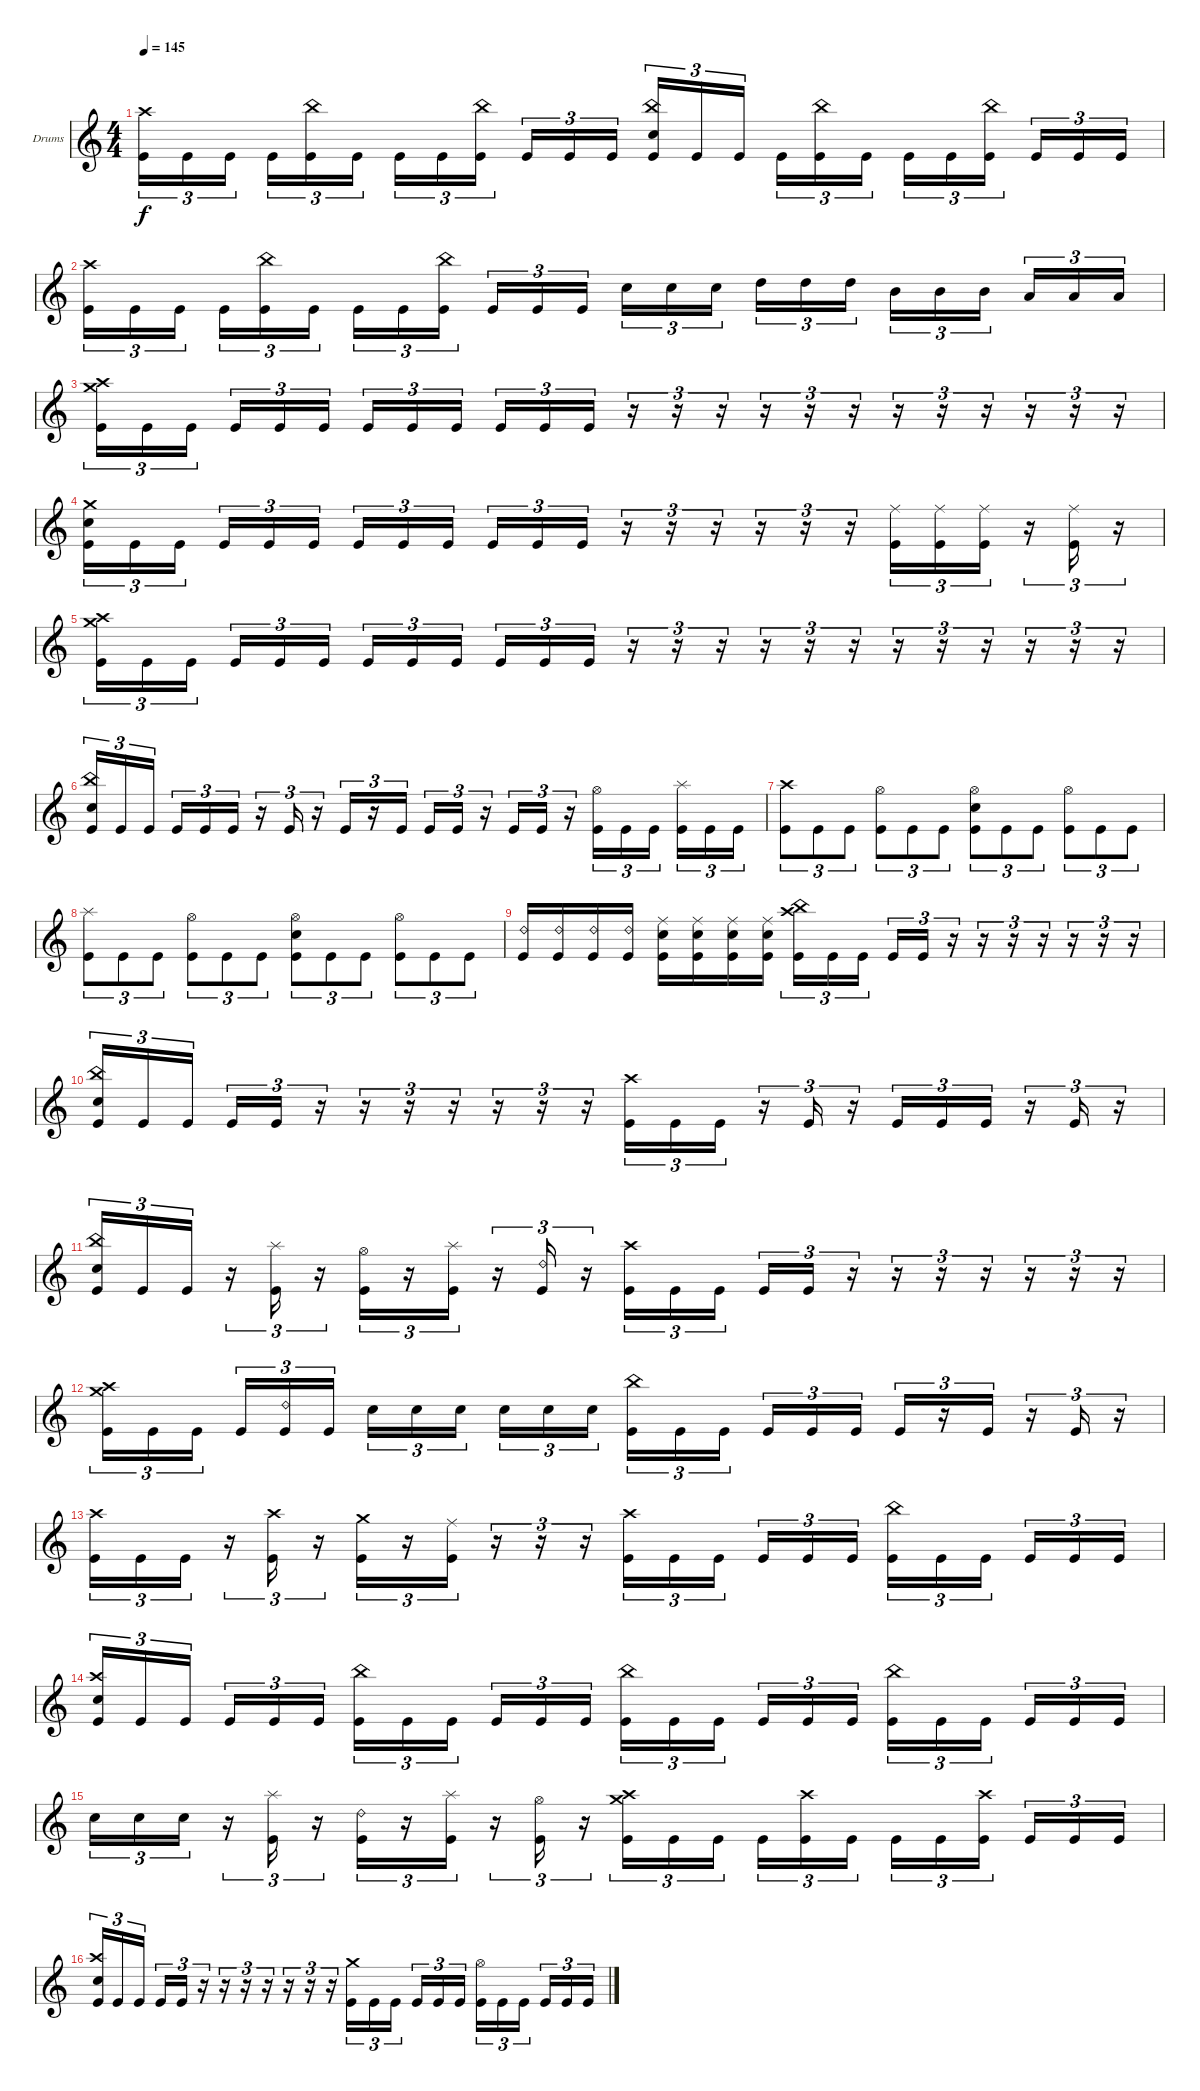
\defaultSystemsLayout 4
\bracketExtendMode groupsimilarinstruments
\firstSystemTrackNameOrientation horizontal
\otherSystemsTrackNameOrientation horizontal
\track ("Drums" "Drums") {instrument percussion}
\staff {score}
\articulation defaults
\ts (4 4)
\tempo 145
\clef g2
\ks c
("Kick (hit)" "Crash high (hit)").16{tu (3 2) dy f} "Kick (hit)".16{tu (3 2)} "Kick (hit)".16{tu (3 2)} "Kick (hit)".16{tu (3 2)} ("Kick (hit)" "China (hit)").16{tu (3 2)} "Kick (hit)".16{tu (3 2)} "Kick (hit)".16{tu (3 2)} "Kick (hit)".16{tu (3 2)} ("Kick (hit)" "China (hit)").16{tu (3 2)} "Kick (hit)".16{tu (3 2)} "Kick (hit)".16{tu (3 2)} "Kick (hit)".16{tu (3 2)} ("Kick (hit)" "China (hit)" "Snare (hit) 2").16{tu (3 2)} "Kick (hit)".16{tu (3 2)} "Kick (hit)".16{tu (3 2)} "Kick (hit)".16{tu (3 2)} ("Kick (hit)" "China (hit)").16{tu (3 2)} "Kick (hit)".16{tu (3 2)} "Kick (hit)".16{tu (3 2)} "Kick (hit)".16{tu (3 2)} ("Kick (hit)" "China (hit)").16{tu (3 2)} "Kick (hit)".16{tu (3 2)} "Kick (hit)".16{tu (3 2)} "Kick (hit)".16{tu (3 2)} |
("Kick (hit)" "Crash high (hit)").16{tu (3 2)} "Kick (hit)".16{tu (3 2)} "Kick (hit)".16{tu (3 2)} "Kick (hit)".16{tu (3 2)} ("Kick (hit)" "China (hit)").16{tu (3 2)} "Kick (hit)".16{tu (3 2)} "Kick (hit)".16{tu (3 2)} "Kick (hit)".16{tu (3 2)} ("Kick (hit)" "China (hit)").16{tu (3 2)} "Kick (hit)".16{tu (3 2)} "Kick (hit)".16{tu (3 2)} "Kick (hit)".16{tu (3 2)} "Snare (hit) 2".16{tu (3 2)} "Snare (hit) 2".16{tu (3 2)} "Snare (hit) 2".16{tu (3 2)} "High Tom (hit)".16{tu (3 2)} "High Tom (hit)".16{tu (3 2)} "High Tom (hit)".16{tu (3 2)} "Mid Tom (hit)".16{tu (3 2)} "Mid Tom (hit)".16{tu (3 2)} "Mid Tom (hit)".16{tu (3 2)} "Low Tom (hit)".16{tu (3 2)} "Low Tom (hit)".16{tu (3 2)} "Low Tom (hit)".16{tu (3 2)} |
("Kick (hit)" "Crash high (hit)" "Crash medium (hit)").16{tu (3 2)} "Kick (hit)".16{tu (3 2)} "Kick (hit)".16{tu (3 2)} "Kick (hit)".16{tu (3 2)} "Kick (hit)".16{tu (3 2)} "Kick (hit)".16{tu (3 2)} "Kick (hit)".16{tu (3 2)} "Kick (hit)".16{tu (3 2)} "Kick (hit)".16{tu (3 2)} "Kick (hit)".16{tu (3 2)} "Kick (hit)".16{tu (3 2)} "Kick (hit)".16{tu (3 2)} r.16{tu (3 2)} r.16{tu (3 2)} r.16{tu (3 2)} r.16{tu (3 2)} r.16{tu (3 2)} r.16{tu (3 2)} r.16{tu (3 2)} r.16{tu (3 2)} r.16{tu (3 2)} r.16{tu (3 2)} r.16{tu (3 2)} r.16{tu (3 2)} |
("Kick (hit)" "Snare (hit) 2" "Crash medium (hit)").16{tu (3 2)} "Kick (hit)".16{tu (3 2)} "Kick (hit)".16{tu (3 2)} "Kick (hit)".16{tu (3 2)} "Kick (hit)".16{tu (3 2)} "Kick (hit)".16{tu (3 2)} "Kick (hit)".16{tu (3 2)} "Kick (hit)".16{tu (3 2)} "Kick (hit)".16{tu (3 2)} "Kick (hit)".16{tu (3 2)} "Kick (hit)".16{tu (3 2)} "Kick (hit)".16{tu (3 2)} r.16{tu (3 2)} r.16{tu (3 2)} r.16{tu (3 2)} r.16{tu (3 2)} r.16{tu (3 2)} r.16{tu (3 2)} ("Kick (hit)" "Ride (middle)").16{tu (3 2)} ("Kick (hit)" "Ride (middle)").16{tu (3 2)} ("Kick (hit)" "Ride (middle)").16{tu (3 2)} r.16{tu (3 2)} ("Kick (hit)" "Ride (middle)").16{tu (3 2)} r.16{tu (3 2)} |
("Kick (hit)" "Crash high (hit)" "Crash medium (hit)").16{tu (3 2)} "Kick (hit)".16{tu (3 2)} "Kick (hit)".16{tu (3 2)} "Kick (hit)".16{tu (3 2)} "Kick (hit)".16{tu (3 2)} "Kick (hit)".16{tu (3 2)} "Kick (hit)".16{tu (3 2)} "Kick (hit)".16{tu (3 2)} "Kick (hit)".16{tu (3 2)} "Kick (hit)".16{tu (3 2)} "Kick (hit)".16{tu (3 2)} "Kick (hit)".16{tu (3 2)} r.16{tu (3 2)} r.16{tu (3 2)} r.16{tu (3 2)} r.16{tu (3 2)} r.16{tu (3 2)} r.16{tu (3 2)} r.16{tu (3 2)} r.16{tu (3 2)} r.16{tu (3 2)} r.16{tu (3 2)} r.16{tu (3 2)} r.16{tu (3 2)} |
("Kick (hit)" "Snare (hit) 2" "China (hit)").16{tu (3 2)} "Kick (hit)".16{tu (3 2)} "Kick (hit)".16{tu (3 2)} "Kick (hit)".16{tu (3 2)} "Kick (hit)".16{tu (3 2)} "Kick (hit)".16{tu (3 2)} r.16{tu (3 2)} "Kick (hit)".16{tu (3 2)} r.16{tu (3 2)} "Kick (hit)".16{tu (3 2)} r.16{tu (3 2)} "Kick (hit)".16{tu (3 2)} "Kick (hit)".16{tu (3 2)} "Kick (hit)".16{tu (3 2)} r.16{tu (3 2)} "Kick (hit)".16{tu (3 2)} "Kick (hit)".16{tu (3 2)} r.16{tu (3 2)} ("Kick (hit)" "Hi-Hat (open)").16{tu (3 2)} "Kick (hit)".16{tu (3 2)} "Kick (hit)".16{tu (3 2)} ("Kick (hit)" "Splash (hit)").16{tu (3 2)} "Kick (hit)".16{tu (3 2)} "Kick (hit)".16{tu (3 2)} |
("Kick (hit)" "Crash high (hit)").8{tu (3 2)} "Kick (hit)".8{tu (3 2)} "Kick (hit)".8{tu (3 2)} ("Kick (hit)" "Hi-Hat (open)").8{tu (3 2)} "Kick (hit)".8{tu (3 2)} "Kick (hit)".8{tu (3 2)} ("Kick (hit)" "Hi-Hat (open)" "Snare (hit) 2").8{tu (3 2)} "Kick (hit)".8{tu (3 2)} "Kick (hit)".8{tu (3 2)} ("Kick (hit)" "Hi-Hat (open)").8{tu (3 2)} "Kick (hit)".8{tu (3 2)} "Kick (hit)".8{tu (3 2)} |
("Kick (hit)" "Splash (hit)").8{tu (3 2)} "Kick (hit)".8{tu (3 2)} "Kick (hit)".8{tu (3 2)} ("Kick (hit)" "Hi-Hat (open)").8{tu (3 2)} "Kick (hit)".8{tu (3 2)} "Kick (hit)".8{tu (3 2)} ("Kick (hit)" "Hi-Hat (open)" "Snare (hit) 2").8{tu (3 2)} "Kick (hit)".8{tu (3 2)} "Kick (hit)".8{tu (3 2)} ("Kick (hit)" "Hi-Hat (open)").8{tu (3 2)} "Kick (hit)".8{tu (3 2)} "Kick (hit)".8{tu (3 2)} |
("Kick (hit)" "Ride (bell) 2").16 ("Kick (hit)" "Ride (bell) 2").16 ("Kick (hit)" "Ride (bell) 2").16 ("Kick (hit)" "Ride (bell) 2").16 ("Kick (hit)" "Snare (hit) 2" "Ride (middle)").16 ("Kick (hit)" "Snare (hit) 2" "Ride (middle)").16 ("Kick (hit)" "Snare (hit) 2" "Ride (middle)").16 ("Kick (hit)" "Snare (hit) 2" "Ride (middle)").16 ("Kick (hit)" "Crash high (hit)" "China (hit)").16{tu (3 2)} "Kick (hit)".16{tu (3 2)} "Kick (hit)".16{tu (3 2)} "Kick (hit)".16{tu (3 2)} "Kick (hit)".16{tu (3 2)} r.16{tu (3 2)} r.16{tu (3 2)} r.16{tu (3 2)} r.16{tu (3 2)} r.16{tu (3 2)} r.16{tu (3 2)} r.16{tu (3 2)} |
("Kick (hit)" "Snare (hit) 2" "China (hit)").16{tu (3 2)} "Kick (hit)".16{tu (3 2)} "Kick (hit)".16{tu (3 2)} "Kick (hit)".16{tu (3 2)} "Kick (hit)".16{tu (3 2)} r.16{tu (3 2)} r.16{tu (3 2)} r.16{tu (3 2)} r.16{tu (3 2)} r.16{tu (3 2)} r.16{tu (3 2)} r.16{tu (3 2)} ("Kick (hit)" "Crash high (hit)").16{tu (3 2)} "Kick (hit)".16{tu (3 2)} "Kick (hit)".16{tu (3 2)} r.16{tu (3 2)} "Kick (hit)".16{tu (3 2)} r.16{tu (3 2)} "Kick (hit)".16{tu (3 2)} "Kick (hit)".16{tu (3 2)} "Kick (hit)".16{tu (3 2)} r.16{tu (3 2)} "Kick (hit)".16{tu (3 2)} r.16{tu (3 2)} |
("Kick (hit)" "Snare (hit) 2" "China (hit)").16{tu (3 2)} "Kick (hit)".16{tu (3 2)} "Kick (hit)".16{tu (3 2)} r.16{tu (3 2)} ("Kick (hit)" "Splash (hit)").16{tu (3 2)} r.16{tu (3 2)} ("Kick (hit)" "Hi-Hat (open)").16{tu (3 2)} r.16{tu (3 2)} ("Kick (hit)" "Splash (hit)").16{tu (3 2)} r.16{tu (3 2)} ("Kick (hit)" "Ride (bell) 2").16{tu (3 2)} r.16{tu (3 2)} ("Kick (hit)" "Crash high (hit)").16{tu (3 2)} "Kick (hit)".16{tu (3 2)} "Kick (hit)".16{tu (3 2)} "Kick (hit)".16{tu (3 2)} "Kick (hit)".16{tu (3 2)} r.16{tu (3 2)} r.16{tu (3 2)} r.16{tu (3 2)} r.16{tu (3 2)} r.16{tu (3 2)} r.16{tu (3 2)} r.16{tu (3 2)} |
("Kick (hit)" "Crash high (hit)" "Crash medium (hit)").16{tu (3 2)} "Kick (hit)".16{tu (3 2)} "Kick (hit)".16{tu (3 2)} "Kick (hit)".16{tu (3 2)} ("Kick (hit)" "Ride (bell) 2").16{tu (3 2)} "Kick (hit)".16{tu (3 2)} "Snare (hit) 2".16{tu (3 2)} "Snare (hit) 2".16{tu (3 2)} "Snare (hit) 2".16{tu (3 2)} "Snare (hit) 2".16{tu (3 2)} "Snare (hit) 2".16{tu (3 2)} "Snare (hit) 2".16{tu (3 2)} ("Kick (hit)" "China (hit)").16{tu (3 2)} "Kick (hit)".16{tu (3 2)} "Kick (hit)".16{tu (3 2)} "Kick (hit)".16{tu (3 2)} "Kick (hit)".16{tu (3 2)} "Kick (hit)".16{tu (3 2)} "Kick (hit)".16{tu (3 2)} r.16{tu (3 2)} "Kick (hit)".16{tu (3 2)} r.16{tu (3 2)} "Kick (hit)".16{tu (3 2)} r.16{tu (3 2)} |
("Kick (hit)" "Crash high (hit)").16{tu (3 2)} "Kick (hit)".16{tu (3 2)} "Kick (hit)".16{tu (3 2)} r.16{tu (3 2)} ("Kick (hit)" "Crash high (hit)").16{tu (3 2)} r.16{tu (3 2)} ("Kick (hit)" "Crash medium (hit)").16{tu (3 2)} r.16{tu (3 2)} ("Kick (hit)" "Ride (middle)").16{tu (3 2)} r.16{tu (3 2)} r.16{tu (3 2)} r.16{tu (3 2)} ("Kick (hit)" "Crash high (hit)").16{tu (3 2)} "Kick (hit)".16{tu (3 2)} "Kick (hit)".16{tu (3 2)} "Kick (hit)".16{tu (3 2)} "Kick (hit)".16{tu (3 2)} "Kick (hit)".16{tu (3 2)} ("Kick (hit)" "China (hit)").16{tu (3 2)} "Kick (hit)".16{tu (3 2)} "Kick (hit)".16{tu (3 2)} "Kick (hit)".16{tu (3 2)} "Kick (hit)".16{tu (3 2)} "Kick (hit)".16{tu (3 2)} |
("Kick (hit)" "Crash high (hit)" "Snare (hit) 2").16{tu (3 2)} "Kick (hit)".16{tu (3 2)} "Kick (hit)".16{tu (3 2)} "Kick (hit)".16{tu (3 2)} "Kick (hit)".16{tu (3 2)} "Kick (hit)".16{tu (3 2)} ("Kick (hit)" "China (hit)").16{tu (3 2)} "Kick (hit)".16{tu (3 2)} "Kick (hit)".16{tu (3 2)} "Kick (hit)".16{tu (3 2)} "Kick (hit)".16{tu (3 2)} "Kick (hit)".16{tu (3 2)} ("Kick (hit)" "China (hit)").16{tu (3 2)} "Kick (hit)".16{tu (3 2)} "Kick (hit)".16{tu (3 2)} "Kick (hit)".16{tu (3 2)} "Kick (hit)".16{tu (3 2)} "Kick (hit)".16{tu (3 2)} ("Kick (hit)" "China (hit)").16{tu (3 2)} "Kick (hit)".16{tu (3 2)} "Kick (hit)".16{tu (3 2)} "Kick (hit)".16{tu (3 2)} "Kick (hit)".16{tu (3 2)} "Kick (hit)".16{tu (3 2)} |
"Snare (hit) 2".16{tu (3 2)} "Snare (hit) 2".16{tu (3 2)} "Snare (hit) 2".16{tu (3 2)} r.16{tu (3 2)} ("Kick (hit)" "Splash (hit)").16{tu (3 2)} r.16{tu (3 2)} ("Kick (hit)" "Ride (bell) 2").16{tu (3 2)} r.16{tu (3 2)} ("Kick (hit)" "Splash (hit)").16{tu (3 2)} r.16{tu (3 2)} ("Kick (hit)" "Hi-Hat (open)").16{tu (3 2)} r.16{tu (3 2)} ("Kick (hit)" "Crash high (hit)" "Crash medium (hit)").16{tu (3 2)} "Kick (hit)".16{tu (3 2)} "Kick (hit)".16{tu (3 2)} "Kick (hit)".16{tu (3 2)} ("Kick (hit)" "Crash high (hit)").16{tu (3 2)} "Kick (hit)".16{tu (3 2)} "Kick (hit)".16{tu (3 2)} "Kick (hit)".16{tu (3 2)} ("Kick (hit)" "Crash high (hit)").16{tu (3 2)} "Kick (hit)".16{tu (3 2)} "Kick (hit)".16{tu (3 2)} "Kick (hit)".16{tu (3 2)} |
("Kick (hit)" "Snare (hit) 2" "Crash high (hit)").16{tu (3 2)} "Kick (hit)".16{tu (3 2)} "Kick (hit)".16{tu (3 2)} "Kick (hit)".16{tu (3 2)} "Kick (hit)".16{tu (3 2)} r.16{tu (3 2)} r.16{tu (3 2)} r.16{tu (3 2)} r.16{tu (3 2)} r.16{tu (3 2)} r.16{tu (3 2)} r.16{tu (3 2)} ("Kick (hit)" "Crash medium (hit)").16{tu (3 2)} "Kick (hit)".16{tu (3 2)} "Kick (hit)".16{tu (3 2)} "Kick (hit)".16{tu (3 2)} "Kick (hit)".16{tu (3 2)} "Kick (hit)".16{tu (3 2)} ("Kick (hit)" "Hi-Hat (open)").16{tu (3 2)} "Kick (hit)".16{tu (3 2)} "Kick (hit)".16{tu (3 2)} "Kick (hit)".16{tu (3 2)} "Kick (hit)".16{tu (3 2)} "Kick (hit)".16{tu (3 2)}
